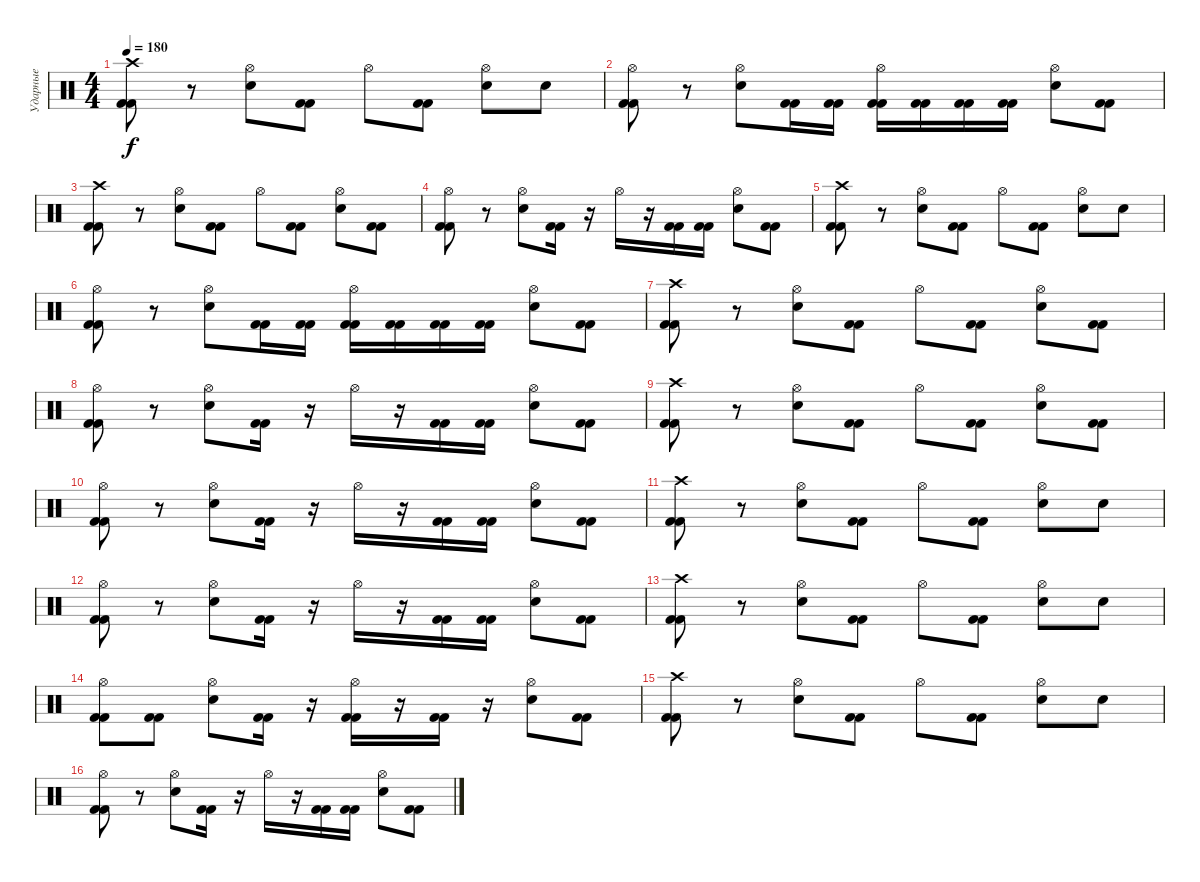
\track ("Ударные" "Ударные") {instrument percussion}
\staff {score}
\articulation defaults
\ts (4 4)
\tempo 180
\clef neutral
\ks c
("Crash high (hit)" "Kick (hit) 2" "Kick (hit) 2").8{dy f} r.8 ("Hi-Hat (open)" "Electric Snare (hit)").8 ("Kick (hit) 2" "Kick (hit) 2").8 "Hi-Hat (open)".8 ("Kick (hit) 2" "Kick (hit) 2").8 ("Hi-Hat (open)" "Electric Snare (hit)").8 "Electric Snare (hit)".8 |
("Hi-Hat (open)" "Kick (hit) 2" "Kick (hit) 2").8 r.8 ("Hi-Hat (open)" "Electric Snare (hit)").8 ("Kick (hit) 2" "Kick (hit) 2").16 ("Kick (hit) 2" "Kick (hit) 2").16 ("Hi-Hat (open)" "Kick (hit) 2" "Kick (hit) 2").16 ("Kick (hit) 2" "Kick (hit) 2").16 ("Kick (hit) 2" "Kick (hit) 2").16 ("Kick (hit) 2" "Kick (hit) 2").16 ("Hi-Hat (open)" "Electric Snare (hit)").8 ("Kick (hit) 2" "Kick (hit) 2").8 |
("Crash high (hit)" "Kick (hit) 2" "Kick (hit) 2").8 r.8 ("Hi-Hat (open)" "Electric Snare (hit)").8 ("Kick (hit) 2" "Kick (hit) 2").8 "Hi-Hat (open)".8 ("Kick (hit) 2" "Kick (hit) 2").8 ("Hi-Hat (open)" "Electric Snare (hit)").8 ("Kick (hit) 2" "Kick (hit) 2").8 |
("Hi-Hat (open)" "Kick (hit) 2" "Kick (hit) 2").8 r.8 ("Hi-Hat (open)" "Electric Snare (hit)").8 ("Kick (hit) 2" "Kick (hit) 2").16 r.16 "Hi-Hat (open)".16 r.16 ("Kick (hit) 2" "Kick (hit) 2").16 ("Kick (hit) 2" "Kick (hit) 2").16 ("Hi-Hat (open)" "Electric Snare (hit)").8 ("Kick (hit) 2" "Kick (hit) 2").8 |
("Crash high (hit)" "Kick (hit) 2" "Kick (hit) 2").8 r.8 ("Hi-Hat (open)" "Electric Snare (hit)").8 ("Kick (hit) 2" "Kick (hit) 2").8 "Hi-Hat (open)".8 ("Kick (hit) 2" "Kick (hit) 2").8 ("Hi-Hat (open)" "Electric Snare (hit)").8 "Electric Snare (hit)".8 |
("Hi-Hat (open)" "Kick (hit) 2" "Kick (hit) 2").8 r.8 ("Hi-Hat (open)" "Electric Snare (hit)").8 ("Kick (hit) 2" "Kick (hit) 2").16 ("Kick (hit) 2" "Kick (hit) 2").16 ("Hi-Hat (open)" "Kick (hit) 2" "Kick (hit) 2").16 ("Kick (hit) 2" "Kick (hit) 2").16 ("Kick (hit) 2" "Kick (hit) 2").16 ("Kick (hit) 2" "Kick (hit) 2").16 ("Hi-Hat (open)" "Electric Snare (hit)").8 ("Kick (hit) 2" "Kick (hit) 2").8 |
("Crash high (hit)" "Kick (hit) 2" "Kick (hit) 2").8 r.8 ("Hi-Hat (open)" "Electric Snare (hit)").8 ("Kick (hit) 2" "Kick (hit) 2").8 "Hi-Hat (open)".8 ("Kick (hit) 2" "Kick (hit) 2").8 ("Hi-Hat (open)" "Electric Snare (hit)").8 ("Kick (hit) 2" "Kick (hit) 2").8 |
("Hi-Hat (open)" "Kick (hit) 2" "Kick (hit) 2").8 r.8 ("Hi-Hat (open)" "Electric Snare (hit)").8 ("Kick (hit) 2" "Kick (hit) 2").16 r.16 "Hi-Hat (open)".16 r.16 ("Kick (hit) 2" "Kick (hit) 2").16 ("Kick (hit) 2" "Kick (hit) 2").16 ("Hi-Hat (open)" "Electric Snare (hit)").8 ("Kick (hit) 2" "Kick (hit) 2").8 |
("Crash high (hit)" "Kick (hit) 2" "Kick (hit) 2").8 r.8 ("Hi-Hat (open)" "Electric Snare (hit)").8 ("Kick (hit) 2" "Kick (hit) 2").8 "Hi-Hat (open)".8 ("Kick (hit) 2" "Kick (hit) 2").8 ("Hi-Hat (open)" "Electric Snare (hit)").8 ("Kick (hit) 2" "Kick (hit) 2").8 |
("Hi-Hat (open)" "Kick (hit) 2" "Kick (hit) 2").8 r.8 ("Hi-Hat (open)" "Electric Snare (hit)").8 ("Kick (hit) 2" "Kick (hit) 2").16 r.16 "Hi-Hat (open)".16 r.16 ("Kick (hit) 2" "Kick (hit) 2").16 ("Kick (hit) 2" "Kick (hit) 2").16 ("Hi-Hat (open)" "Electric Snare (hit)").8 ("Kick (hit) 2" "Kick (hit) 2").8 |
("Crash high (hit)" "Kick (hit) 2" "Kick (hit) 2").8 r.8 ("Hi-Hat (open)" "Electric Snare (hit)").8 ("Kick (hit) 2" "Kick (hit) 2").8 "Hi-Hat (open)".8 ("Kick (hit) 2" "Kick (hit) 2").8 ("Hi-Hat (open)" "Electric Snare (hit)").8 "Electric Snare (hit)".8 |
("Hi-Hat (open)" "Kick (hit) 2" "Kick (hit) 2").8 r.8 ("Hi-Hat (open)" "Electric Snare (hit)").8 ("Kick (hit) 2" "Kick (hit) 2").16 r.16 "Hi-Hat (open)".16 r.16 ("Kick (hit) 2" "Kick (hit) 2").16 ("Kick (hit) 2" "Kick (hit) 2").16 ("Hi-Hat (open)" "Electric Snare (hit)").8 ("Kick (hit) 2" "Kick (hit) 2").8 |
("Crash high (hit)" "Kick (hit) 2" "Kick (hit) 2").8 r.8 ("Hi-Hat (open)" "Electric Snare (hit)").8 ("Kick (hit) 2" "Kick (hit) 2").8 "Hi-Hat (open)".8 ("Kick (hit) 2" "Kick (hit) 2").8 ("Hi-Hat (open)" "Electric Snare (hit)").8 "Electric Snare (hit)".8 |
("Hi-Hat (open)" "Kick (hit) 2" "Kick (hit) 2").8 ("Kick (hit) 2" "Kick (hit) 2").8 ("Hi-Hat (open)" "Electric Snare (hit)").8 ("Kick (hit) 2" "Kick (hit) 2").16 r.16 ("Hi-Hat (open)" "Kick (hit) 2" "Kick (hit) 2").16 r.16 ("Kick (hit) 2" "Kick (hit) 2").16 r.16 ("Hi-Hat (open)" "Electric Snare (hit)").8 ("Kick (hit) 2" "Kick (hit) 2").8 |
("Crash high (hit)" "Kick (hit) 2" "Kick (hit) 2").8 r.8 ("Hi-Hat (open)" "Electric Snare (hit)").8 ("Kick (hit) 2" "Kick (hit) 2").8 "Hi-Hat (open)".8 ("Kick (hit) 2" "Kick (hit) 2").8 ("Hi-Hat (open)" "Electric Snare (hit)").8 "Electric Snare (hit)".8 |
("Hi-Hat (open)" "Kick (hit) 2" "Kick (hit) 2").8 r.8 ("Hi-Hat (open)" "Electric Snare (hit)").8 ("Kick (hit) 2" "Kick (hit) 2").16 r.16 "Hi-Hat (open)".16 r.16 ("Kick (hit) 2" "Kick (hit) 2").16 ("Kick (hit) 2" "Kick (hit) 2").16 ("Hi-Hat (open)" "Electric Snare (hit)").8 ("Kick (hit) 2" "Kick (hit) 2").8
